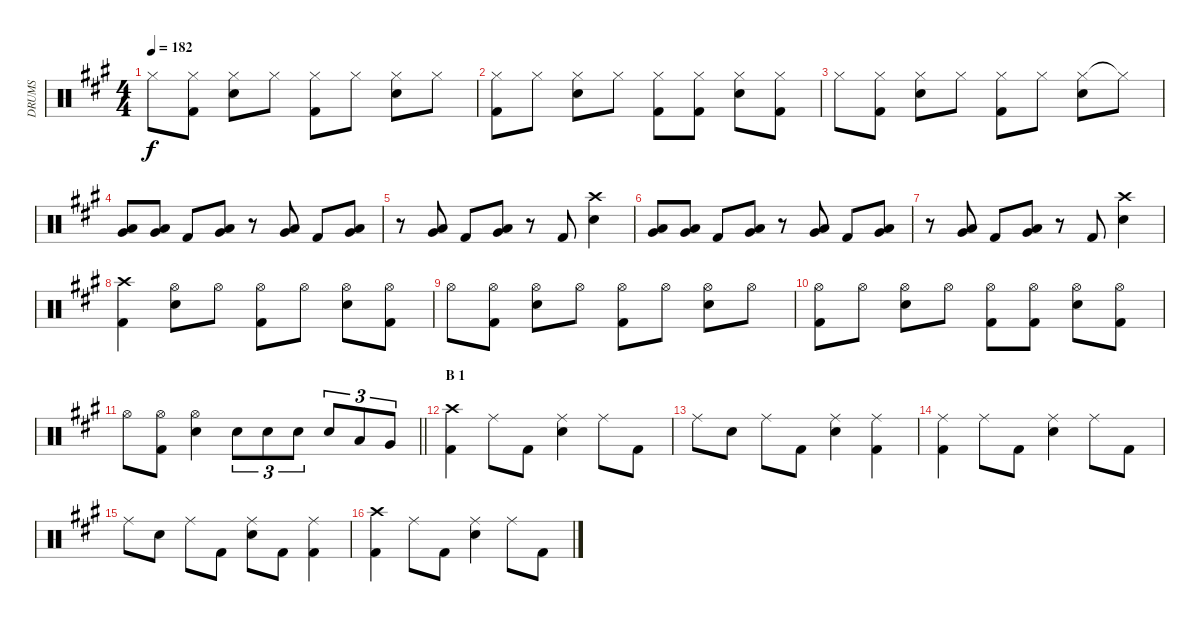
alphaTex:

\track ("DRUMS" "DRUMS") {instrument percussion}
\staff {score}
\articulation defaults
\ts (4 4)
\tempo 182
\clef neutral
\ks a "Hi-Hat (closed)".8{dy f}
("Hi-Hat (closed)" "Kick (hit) 2").8 ("Hi-Hat (closed)" "Snare (hit) 2").8 "Hi-Hat (closed)".8 ("Hi-Hat (closed)" "Kick (hit) 2").8 "Hi-Hat (closed)".8 ("Hi-Hat (closed)" "Snare (hit) 2").8 "Hi-Hat (closed)".8 |
("Hi-Hat (closed)" "Kick (hit) 2").8 "Hi-Hat (closed)".8 ("Hi-Hat (closed)" "Snare (hit) 2").8 "Hi-Hat (closed)".8 ("Hi-Hat (closed)" "Kick (hit) 2").8 ("Hi-Hat (closed)" "Kick (hit) 2").8 ("Hi-Hat (closed)" "Snare (hit) 2").8 ("Hi-Hat (closed)" "Kick (hit) 2").8 |
"Hi-Hat (closed)".8 ("Hi-Hat (closed)" "Kick (hit) 2").8 ("Hi-Hat (closed)" "Snare (hit) 2").8 "Hi-Hat (closed)".8 ("Hi-Hat (closed)" "Kick (hit) 2").8 "Hi-Hat (closed)".8 ("Hi-Hat (closed)" "Snare (hit) 2").8 "Hi-Hat (closed)"{t}.8 |
("Low Tom (hit)" "Very Low Tom (hit)").8 ("Low Tom (hit)" "Very Low Tom (hit)").8 "Kick (hit) 2".8 ("Low Tom (hit)" "Very Low Tom (hit)").8 r.8 ("Low Tom (hit)" "Very Low Tom (hit)").8 "Kick (hit) 2".8 ("Low Tom (hit)" "Very Low Tom (hit)").8 |
r.8 ("Very Low Tom (hit)" "Low Tom (hit)").8 "Kick (hit) 2".8 ("Very Low Tom (hit)" "Low Tom (hit)").8 r.8 "Kick (hit) 2".8 ("Crash high (hit)" "Snare (hit) 2").4 |
("Low Tom (hit)" "Very Low Tom (hit)").8 ("Low Tom (hit)" "Very Low Tom (hit)").8 "Kick (hit) 2".8 ("Low Tom (hit)" "Very Low Tom (hit)").8 r.8 ("Low Tom (hit)" "Very Low Tom (hit)").8 "Kick (hit) 2".8 ("Low Tom (hit)" "Very Low Tom (hit)").8 |
r.8 ("Very Low Tom (hit)" "Low Tom (hit)").8 "Kick (hit) 2".8 ("Very Low Tom (hit)" "Low Tom (hit)").8 r.8 "Kick (hit) 2".8 ("Crash high (hit)" "Snare (hit) 2").4 |
("Crash high (hit)" "Kick (hit) 2").4 ("Hi-Hat (open)" "Snare (hit) 2").8 "Hi-Hat (open)".8 ("Hi-Hat (open)" "Kick (hit) 2").8 "Hi-Hat (open)".8 ("Hi-Hat (open)" "Snare (hit) 2").8 ("Hi-Hat (open)" "Kick (hit) 2").8 |
"Hi-Hat (open)".8 ("Hi-Hat (open)" "Kick (hit) 2").8 ("Hi-Hat (open)" "Snare (hit) 2").8 "Hi-Hat (open)".8 ("Hi-Hat (open)" "Kick (hit) 2").8 "Hi-Hat (open)".8 ("Hi-Hat (open)" "Snare (hit) 2").8 "Hi-Hat (open)".8 |
("Hi-Hat (open)" "Kick (hit) 2").8 "Hi-Hat (open)".8 ("Hi-Hat (open)" "Snare (hit) 2").8 "Hi-Hat (open)".8 ("Hi-Hat (open)" "Kick (hit) 2").8 ("Hi-Hat (open)" "Kick (hit) 2").8 ("Hi-Hat (open)" "Snare (hit) 2").8 ("Hi-Hat (open)" "Kick (hit) 2").8 |
\barLineRight lightlight "Hi-Hat (open)".8
("Hi-Hat (open)" "Kick (hit) 2").8 ("Hi-Hat (open)" "Snare (hit) 2").4 "Snare (hit) 2".8{tu (3 2)} "Snare (hit) 2".8{tu (3 2)} "Snare (hit) 2".8{tu (3 2)} "Snare (hit) 2".8{tu (3 2)} "Low Tom (hit)".8{tu (3 2)} "Very Low Tom (hit)".8{tu (3 2)} |
\section ("" "B 1")
("Crash high (hit)" "Kick (hit) 2").4 "Ride (middle)".8 "Kick (hit) 2".8 ("Ride (middle)" "Snare (hit) 2").4 "Ride (middle)".8 "Kick (hit) 2".8 |
"Ride (middle)".8 "Snare (hit) 2".8 "Ride (middle)".8 "Kick (hit) 2".8 ("Ride (middle)" "Snare (hit) 2").4 ("Ride (middle)" "Kick (hit) 2").4 |
("Ride (middle)" "Kick (hit) 2").4 "Ride (middle)".8 "Kick (hit) 2".8 ("Ride (middle)" "Snare (hit) 2").4 "Ride (middle)".8 "Kick (hit) 2".8 |
"Ride (middle)".8 "Snare (hit) 2".8 "Ride (middle)".8 "Kick (hit) 2".8 ("Ride (middle)" "Snare (hit) 2").8 "Kick (hit) 2".8 ("Ride (middle)" "Kick (hit) 2").4 |
("Crash high (hit)" "Kick (hit) 2").4 "Ride (middle)".8 "Kick (hit) 2".8 ("Ride (middle)" "Snare (hit) 2").4 "Ride (middle)".8 "Kick (hit) 2".8
